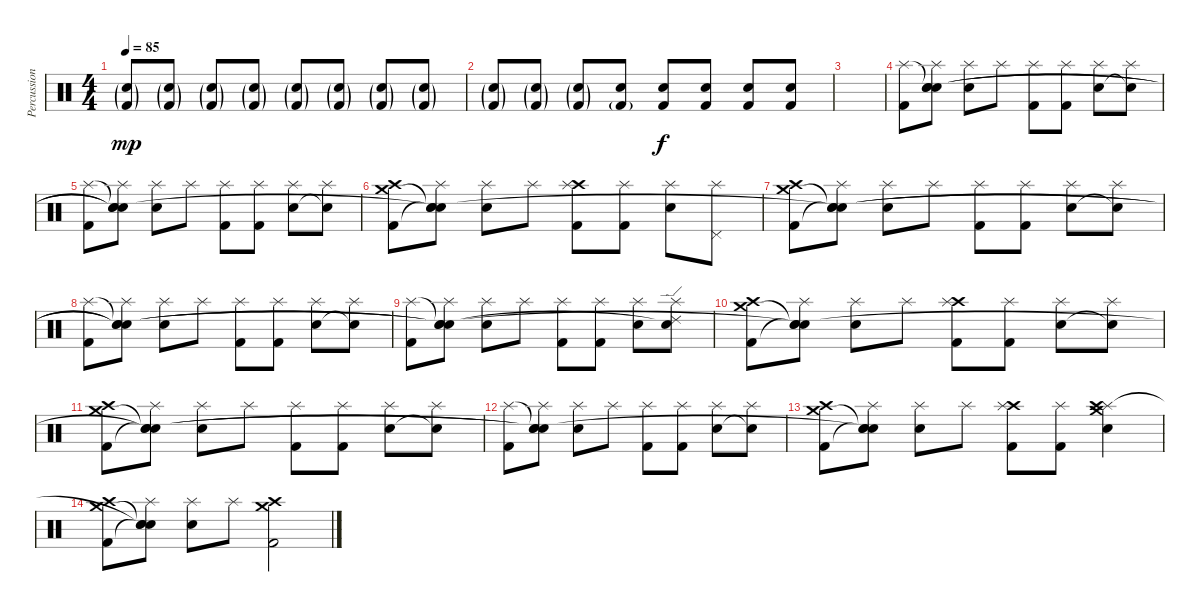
\track ("Percussion" "Percussion") {instrument percussion}
\staff {score}
\articulation defaults
\ts (4 4)
\tempo 85
\clef neutral
\ks c
("Snare (hit) 2"{g} "Kick (hit) 2"{g}).8{dy mp} ("Snare (hit) 2"{g} "Kick (hit) 2"{g}).8 ("Snare (hit) 2"{g} "Kick (hit) 2"{g}).8 ("Snare (hit) 2"{g} "Kick (hit) 2"{g}).8 ("Snare (hit) 2"{g} "Kick (hit) 2"{g}).8 ("Snare (hit) 2"{g} "Kick (hit) 2"{g}).8 ("Snare (hit) 2"{g} "Kick (hit) 2"{g}).8 ("Snare (hit) 2"{g} "Kick (hit) 2"{g}).8 |
("Snare (hit) 2"{g} "Kick (hit) 2"{g}).8 ("Snare (hit) 2"{g} "Kick (hit) 2"{g}).8 ("Snare (hit) 2"{g} "Kick (hit) 2"{g}).8 ("Snare (hit) 2" "Kick (hit) 2"{g}).8 ("Snare (hit) 2" "Kick (hit) 2").8{dy f} ("Snare (hit) 2" "Kick (hit) 2").8 ("Snare (hit) 2" "Kick (hit) 2").8 ("Snare (hit) 2" "Kick (hit) 2").8 |
|
("Splash (hit)" "Kick (hit) 2").8 ("Snare (hit)"{t} "Splash (hit)" "Snare (hit) 2" "Snare (hit)").8 ("Splash (hit)" "Snare (hit) 2").8 "Splash (hit)".8 ("Splash (hit)" "Kick (hit) 2").8 ("Splash (hit)" "Kick (hit) 2").8 ("Splash (hit)" "Snare (hit) 2").8 ("Splash (hit)" "Snare (hit)"{t}).8 |
("Splash (hit)" "Kick (hit) 2").8 ("Snare (hit)"{t} "Splash (hit)" "Snare (hit) 2"{t} "Snare (hit)"{t}).8 ("Splash (hit)" "Snare (hit) 2").8 "Splash (hit)".8 ("Splash (hit)" "Kick (hit) 2").8 ("Splash (hit)" "Kick (hit) 2").8 ("Splash (hit)" "Snare (hit) 2").8 ("Splash (hit)" "Snare (hit)"{t}).8 |
("Crash medium (hit)" "Crash high (hit)" "Kick (hit) 2").8 ("Snare (hit)"{t} "Splash (hit)" "Snare (hit) 2"{t} "Snare (hit)"{t}).8 ("Splash (hit)" "Snare (hit) 2").8 "Splash (hit)".8 ("Crash high (hit)" "Splash (hit)" "Kick (hit) 2").8 ("Splash (hit)" "Kick (hit) 2").8 ("Splash (hit)" "Snare (hit) 2").8 ("Splash (hit)" "Pedal Hi-Hat (hit)").8 |
("Crash medium (hit)" "Crash high (hit)" "Kick (hit) 2").8 ("Snare (hit)"{t} "Splash (hit)" "Snare (hit) 2"{t} "Snare (hit)"{t}).8 ("Splash (hit)" "Snare (hit) 2").8 "Splash (hit)".8 ("Splash (hit)" "Kick (hit) 2").8 ("Splash (hit)" "Kick (hit) 2").8 ("Splash (hit)" "Snare (hit) 2").8 ("Splash (hit)" "Snare (hit)"{t}).8 |
("Splash (hit)" "Kick (hit) 2").8 ("Snare (hit)"{t} "Splash (hit)" "Snare (hit) 2"{t} "Snare (hit)"{t}).8 ("Splash (hit)" "Snare (hit) 2").8 "Splash (hit)".8 ("Splash (hit)" "Kick (hit) 2").8 ("Splash (hit)" "Kick (hit) 2").8 ("Splash (hit)" "Snare (hit) 2").8 ("Splash (hit)" "Snare (hit)"{t}).8 |
("Splash (hit)" "Kick (hit) 2").8 ("Snare (hit)"{t} "Splash (hit)" "Snare (hit) 2"{t} "Snare (hit)"{t}).8 ("Splash (hit)" "Snare (hit) 2").8 "Splash (hit)".8 ("Splash (hit)" "Kick (hit) 2").8 ("Splash (hit)" "Kick (hit) 2").8 ("Splash (hit)" "Snare (hit) 2").8 ("Ride (edge) 2" "Splash (hit)" "Snare (hit)"{t}).8 |
("Crash medium (hit)" "Crash high (hit)" "Kick (hit) 2").8 ("Snare (hit)"{t} "Splash (hit)" "Snare (hit) 2"{t} "Snare (hit)"{t}).8 ("Splash (hit)" "Snare (hit) 2").8 "Splash (hit)".8 ("Crash high (hit)" "Splash (hit)" "Kick (hit) 2").8 ("Splash (hit)" "Kick (hit) 2").8 ("Splash (hit)" "Snare (hit) 2").8 ("Splash (hit)" "Snare (hit)"{t}).8 |
("Crash medium (hit)" "Crash high (hit)" "Kick (hit) 2").8 ("Snare (hit)"{t} "Splash (hit)" "Snare (hit) 2"{t} "Snare (hit)"{t}).8 ("Splash (hit)" "Snare (hit) 2").8 "Splash (hit)".8 ("Splash (hit)" "Kick (hit) 2").8 ("Splash (hit)" "Kick (hit) 2").8 ("Splash (hit)" "Snare (hit) 2").8 ("Splash (hit)" "Snare (hit)"{t}).8 |
("Splash (hit)" "Kick (hit) 2").8 ("Snare (hit)"{t} "Splash (hit)" "Snare (hit) 2"{t} "Snare (hit)"{t}).8 ("Splash (hit)" "Snare (hit) 2").8 "Splash (hit)".8 ("Splash (hit)" "Kick (hit) 2").8 ("Splash (hit)" "Kick (hit) 2").8 ("Splash (hit)" "Snare (hit) 2").8 ("Splash (hit)" "Snare (hit)"{t}).8 |
("Crash medium (hit)" "Crash high (hit)" "Kick (hit) 2").8 ("Snare (hit)"{t} "Splash (hit)" "Snare (hit) 2"{t} "Snare (hit)"{t}).8 ("Splash (hit)" "Snare (hit) 2").8 "Splash (hit)".8 ("Crash high (hit)" "Splash (hit)" "Kick (hit) 2").8 ("Splash (hit)" "Kick (hit) 2").8 ("Crash medium (hit)" "Splash (hit)" "Snare (hit) 2" "Crash high (hit)").4 |
("Crash medium (hit)" "Crash high (hit)" "Kick (hit) 2").8 ("Snare (hit)"{t} "Splash (hit)" "Snare (hit) 2"{t} "Snare (hit)"{t}).8 ("Splash (hit)" "Snare (hit) 2").8 "Splash (hit)".8 ("Crash high (hit)" "Crash medium (hit)" "Kick (hit) 2").2
